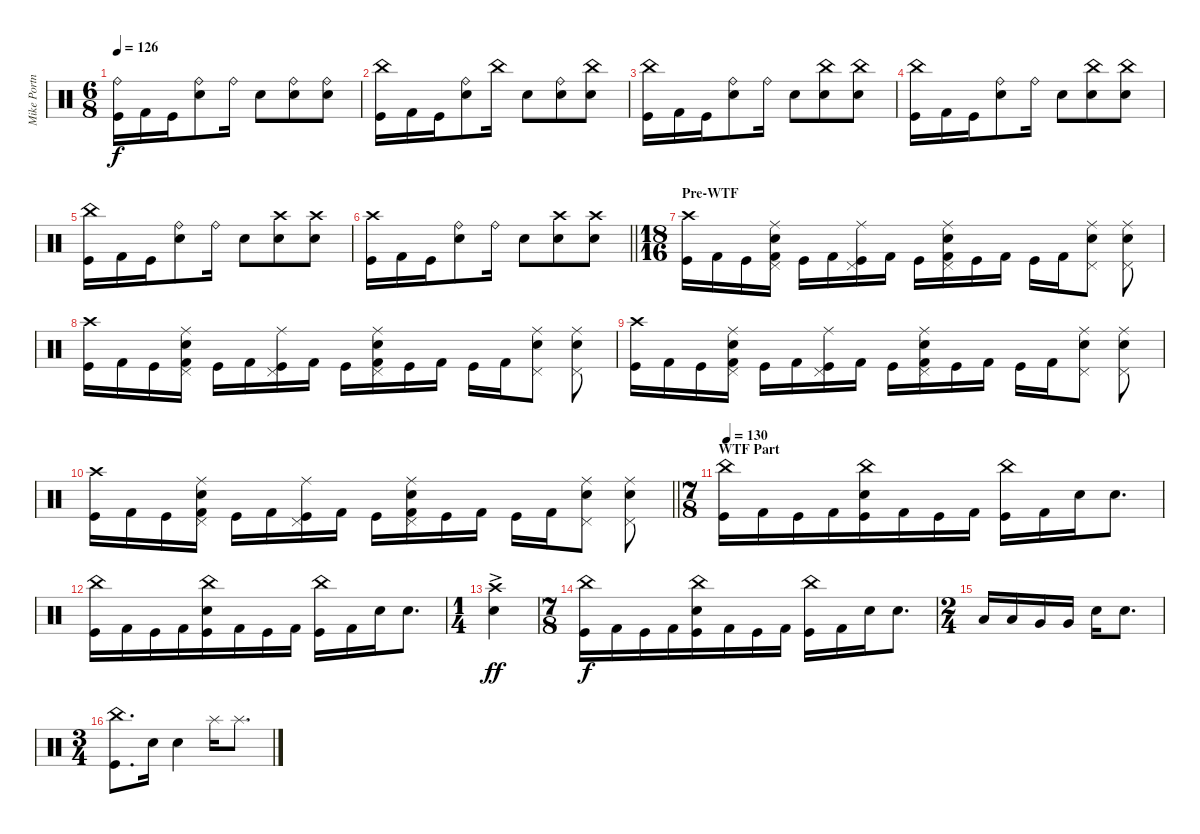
\track ("Mike Portnoy" "Mike Portn") {instrument percussion}
\staff {score}
\articulation defaults
\ts (6 8)
\tempo 126
\clef neutral
\ks aminor
("Ride (bell)" "Kick (hit)").16{dy f} "Kick (hit) 2".16 "Kick (hit)".16 ("Ride (bell)" "Snare (hit) 2").8 "Ride (bell)".16 "Snare (hit) 2".8 ("Ride (bell)" "Snare (hit) 2").8 ("Ride (bell)" "Snare (hit) 2").8 |
("China (hit)" "Kick (hit)").16 "Kick (hit) 2".16 "Kick (hit)".16 ("Ride (bell)" "Snare (hit) 2").8 "China (hit)".16 "Snare (hit) 2".8 ("Ride (bell)" "Snare (hit) 2").8 ("China (hit)" "Snare (hit) 2").8 |
("China (hit)" "Kick (hit)").16 "Kick (hit) 2".16 "Kick (hit)".16 ("Ride (bell)" "Snare (hit) 2").8 "Ride (bell)".16 "Snare (hit) 2".8 ("China (hit)" "Snare (hit) 2").8 ("China (hit)" "Snare (hit) 2").8 |
("China (hit)" "Kick (hit)").16 "Kick (hit) 2".16 "Kick (hit)".16 ("Ride (bell)" "Snare (hit) 2").8 "Ride (bell)".16 "Snare (hit) 2".8 ("China (hit)" "Snare (hit) 2").8 ("China (hit)" "Snare (hit) 2").8 |
("China (hit)" "Kick (hit)").16 "Kick (hit) 2".16 "Kick (hit)".16 ("Ride (bell)" "Snare (hit) 2").8 "Ride (bell)".16 "Snare (hit) 2".8 ("Crash high (hit)" "Snare (hit) 2").8 ("Crash high (hit)" "Snare (hit) 2").8 |
\barLineRight lightlight
("Crash high (hit)" "Kick (hit)").16 "Kick (hit) 2".16 "Kick (hit)".16 ("Ride (bell)" "Snare (hit) 2").8 "Ride (bell)".16 "Snare (hit) 2".8 ("Crash high (hit)" "Snare (hit) 2").8 ("Crash high (hit)" "Snare (hit) 2").8 |
\ts (18 16)
\section ("" "Pre-WTF")
("Crash high (hit)" "Kick (hit)").16 "Kick (hit) 2".16 "Kick (hit)".16 ("Snare (hit) 2" "Pedal Hi-Hat (hit)" "Ride (middle)" "Kick (hit) 2").16 "Kick (hit)".16 "Kick (hit) 2".16 ("Pedal Hi-Hat (hit)" "Ride (middle)" "Kick (hit)").16 "Kick (hit) 2".16 "Kick (hit)".16 ("Snare (hit) 2" "Pedal Hi-Hat (hit)" "Ride (middle)" "Kick (hit) 2").16 "Kick (hit)".16 "Kick (hit) 2".16 "Kick (hit)".16 "Kick (hit) 2".16 ("Snare (hit) 2" "Ride (middle)" "Pedal Hi-Hat (hit)").8 ("Snare (hit) 2" "Ride (middle)" "Pedal Hi-Hat (hit)").8 |
("Crash high (hit)" "Kick (hit)").16 "Kick (hit) 2".16 "Kick (hit)".16 ("Snare (hit) 2" "Pedal Hi-Hat (hit)" "Ride (middle)" "Kick (hit) 2").16 "Kick (hit)".16 "Kick (hit) 2".16 ("Pedal Hi-Hat (hit)" "Ride (middle)" "Kick (hit)").16 "Kick (hit) 2".16 "Kick (hit)".16 ("Snare (hit) 2" "Pedal Hi-Hat (hit)" "Ride (middle)" "Kick (hit) 2").16 "Kick (hit)".16 "Kick (hit) 2".16 "Kick (hit)".16 "Kick (hit) 2".16 ("Snare (hit) 2" "Ride (middle)" "Pedal Hi-Hat (hit)").8 ("Snare (hit) 2" "Ride (middle)" "Pedal Hi-Hat (hit)").8 |
("Crash high (hit)" "Kick (hit)").16 "Kick (hit) 2".16 "Kick (hit)".16 ("Snare (hit) 2" "Pedal Hi-Hat (hit)" "Ride (middle)" "Kick (hit) 2").16 "Kick (hit)".16 "Kick (hit) 2".16 ("Pedal Hi-Hat (hit)" "Ride (middle)" "Kick (hit)").16 "Kick (hit) 2".16 "Kick (hit)".16 ("Snare (hit) 2" "Pedal Hi-Hat (hit)" "Ride (middle)" "Kick (hit) 2").16 "Kick (hit)".16 "Kick (hit) 2".16 "Kick (hit)".16 "Kick (hit) 2".16 ("Snare (hit) 2" "Ride (middle)" "Pedal Hi-Hat (hit)").8 ("Snare (hit) 2" "Ride (middle)" "Pedal Hi-Hat (hit)").8 |
\barLineRight lightlight
("Crash high (hit)" "Kick (hit)").16 "Kick (hit) 2".16 "Kick (hit)".16 ("Snare (hit) 2" "Pedal Hi-Hat (hit)" "Ride (middle)" "Kick (hit) 2").16 "Kick (hit)".16 "Kick (hit) 2".16 ("Pedal Hi-Hat (hit)" "Ride (middle)" "Kick (hit)").16 "Kick (hit) 2".16 "Kick (hit)".16 ("Snare (hit) 2" "Pedal Hi-Hat (hit)" "Ride (middle)" "Kick (hit) 2").16 "Kick (hit)".16 "Kick (hit) 2".16 "Kick (hit)".16 "Kick (hit) 2".16 ("Snare (hit) 2" "Ride (middle)" "Pedal Hi-Hat (hit)").8 ("Snare (hit) 2" "Ride (middle)" "Pedal Hi-Hat (hit)").8 |
\ts (7 8)
\section ("" "WTF Part")
\tempo 130
("China (hit)" "Kick (hit)").16 "Kick (hit) 2".16 "Kick (hit)".16 "Kick (hit) 2".16 ("China (hit)" "Kick (hit)" "Snare (hit) 2").16 "Kick (hit) 2".16 "Kick (hit)".16 "Kick (hit) 2".16 ("China (hit)" "Kick (hit)").16 "Kick (hit) 2".16 "Snare (hit) 2".16 "Snare (hit) 2".8{d} |
("China (hit)" "Kick (hit)").16 "Kick (hit) 2".16 "Kick (hit)".16 "Kick (hit) 2".16 ("China (hit)" "Kick (hit)" "Snare (hit) 2").16 "Kick (hit) 2".16 "Kick (hit)".16 "Kick (hit) 2".16 ("China (hit)" "Kick (hit)").16 "Kick (hit) 2".16 "Snare (hit) 2".16 "Snare (hit) 2".8{d} |
\ts (1 4)
("Crash high (hit)"{ac} "Snare (hit) 2"{ac}).4{dy ff} |
\ts (7 8)
("China (hit)" "Kick (hit)").16{dy f} "Kick (hit) 2".16 "Kick (hit)".16 "Kick (hit) 2".16 ("China (hit)" "Kick (hit)" "Snare (hit) 2").16 "Kick (hit) 2".16 "Kick (hit)".16 "Kick (hit) 2".16 ("China (hit)" "Kick (hit)").16 "Kick (hit) 2".16 "Snare (hit) 2".16 "Snare (hit) 2".8{d} |
\ts (2 4)
"Low Tom (hit)".16 "Low Tom (hit)".16 "Very Low Tom (hit)".16 "Very Low Tom (hit)".16 "Snare (hit) 2".16 "Snare (hit) 2".8{d} |
\ts (3 4)
("China (hit)" "Kick (hit)").8{d} "Snare (hit) 2".16 "Snare (hit) 2".4 "Splash (hit)".16 "Splash (hit)".8{d}
